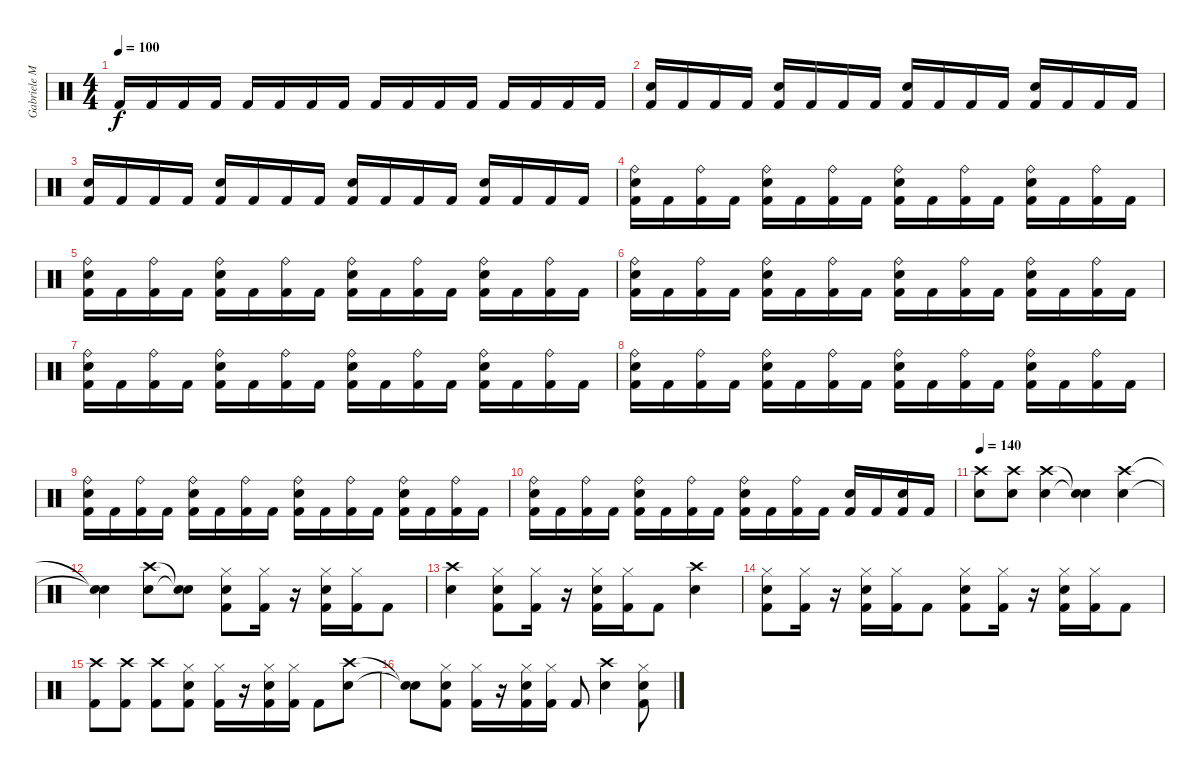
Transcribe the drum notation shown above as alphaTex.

\track ("Gabriele Malatesta" "Gabriele M") {instrument percussion}
\staff {score}
\articulation defaults
\ts (4 4)
\tempo 100
\clef neutral
\ks c "Kick (hit) 2".16{dy f} "Kick (hit) 2".16 "Kick (hit) 2".16 "Kick (hit) 2".16 "Kick (hit) 2".16 "Kick (hit) 2".16 "Kick (hit) 2".16 "Kick (hit) 2".16 "Kick (hit) 2".16 "Kick (hit) 2".16 "Kick (hit) 2".16 "Kick (hit) 2".16 "Kick (hit) 2".16 "Kick (hit) 2".16 "Kick (hit) 2".16 "Kick (hit) 2".16
|
("Electric Snare (hit)" "Kick (hit) 2").16 "Kick (hit) 2".16 "Kick (hit) 2".16 "Kick (hit) 2".16 ("Electric Snare (hit)" "Kick (hit) 2").16 "Kick (hit) 2".16 "Kick (hit) 2".16 "Kick (hit) 2".16 ("Electric Snare (hit)" "Kick (hit) 2").16 "Kick (hit) 2".16 "Kick (hit) 2".16 "Kick (hit) 2".16 ("Electric Snare (hit)" "Kick (hit) 2").16 "Kick (hit) 2".16 "Kick (hit) 2".16 "Kick (hit) 2".16 |
("Electric Snare (hit)" "Kick (hit) 2").16 "Kick (hit) 2".16 "Kick (hit) 2".16 "Kick (hit) 2".16 ("Electric Snare (hit)" "Kick (hit) 2").16 "Kick (hit) 2".16 "Kick (hit) 2".16 "Kick (hit) 2".16 ("Electric Snare (hit)" "Kick (hit) 2").16 "Kick (hit) 2".16 "Kick (hit) 2".16 "Kick (hit) 2".16 ("Electric Snare (hit)" "Kick (hit) 2").16 "Kick (hit) 2".16 "Kick (hit) 2".16 "Kick (hit) 2".16 |
("Ride (bell)" "Electric Snare (hit)" "Kick (hit) 2").16 "Kick (hit) 2".16 ("Ride (bell)" "Kick (hit) 2").16 "Kick (hit) 2".16 ("Ride (bell)" "Electric Snare (hit)" "Kick (hit) 2").16 "Kick (hit) 2".16 ("Ride (bell)" "Kick (hit) 2").16 "Kick (hit) 2".16 ("Ride (bell)" "Electric Snare (hit)" "Kick (hit) 2").16 "Kick (hit) 2".16 ("Ride (bell)" "Kick (hit) 2").16 "Kick (hit) 2".16 ("Ride (bell)" "Electric Snare (hit)" "Kick (hit) 2").16 "Kick (hit) 2".16 ("Ride (bell)" "Kick (hit) 2").16 "Kick (hit) 2".16 |
("Ride (bell)" "Electric Snare (hit)" "Kick (hit) 2").16 "Kick (hit) 2".16 ("Ride (bell)" "Kick (hit) 2").16 "Kick (hit) 2".16 ("Ride (bell)" "Electric Snare (hit)" "Kick (hit) 2").16 "Kick (hit) 2".16 ("Ride (bell)" "Kick (hit) 2").16 "Kick (hit) 2".16 ("Ride (bell)" "Electric Snare (hit)" "Kick (hit) 2").16 "Kick (hit) 2".16 ("Ride (bell)" "Kick (hit) 2").16 "Kick (hit) 2".16 ("Ride (bell)" "Electric Snare (hit)" "Kick (hit) 2").16 "Kick (hit) 2".16 ("Ride (bell)" "Kick (hit) 2").16 "Kick (hit) 2".16 |
("Ride (bell)" "Electric Snare (hit)" "Kick (hit) 2").16 "Kick (hit) 2".16 ("Ride (bell)" "Kick (hit) 2").16 "Kick (hit) 2".16 ("Ride (bell)" "Electric Snare (hit)" "Kick (hit) 2").16 "Kick (hit) 2".16 ("Ride (bell)" "Kick (hit) 2").16 "Kick (hit) 2".16 ("Ride (bell)" "Electric Snare (hit)" "Kick (hit) 2").16 "Kick (hit) 2".16 ("Ride (bell)" "Kick (hit) 2").16 "Kick (hit) 2".16 ("Ride (bell)" "Electric Snare (hit)" "Kick (hit) 2").16 "Kick (hit) 2".16 ("Ride (bell)" "Kick (hit) 2").16 "Kick (hit) 2".16 |
("Ride (bell)" "Electric Snare (hit)" "Kick (hit) 2").16 "Kick (hit) 2".16 ("Ride (bell)" "Kick (hit) 2").16 "Kick (hit) 2".16 ("Ride (bell)" "Electric Snare (hit)" "Kick (hit) 2").16 "Kick (hit) 2".16 ("Ride (bell)" "Kick (hit) 2").16 "Kick (hit) 2".16 ("Ride (bell)" "Electric Snare (hit)" "Kick (hit) 2").16 "Kick (hit) 2".16 ("Ride (bell)" "Kick (hit) 2").16 "Kick (hit) 2".16 ("Ride (bell)" "Electric Snare (hit)" "Kick (hit) 2").16 "Kick (hit) 2".16 ("Ride (bell)" "Kick (hit) 2").16 "Kick (hit) 2".16 |
("Ride (bell)" "Electric Snare (hit)" "Kick (hit) 2").16 "Kick (hit) 2".16 ("Ride (bell)" "Kick (hit) 2").16 "Kick (hit) 2".16 ("Ride (bell)" "Electric Snare (hit)" "Kick (hit) 2").16 "Kick (hit) 2".16 ("Ride (bell)" "Kick (hit) 2").16 "Kick (hit) 2".16 ("Ride (bell)" "Electric Snare (hit)" "Kick (hit) 2").16 "Kick (hit) 2".16 ("Ride (bell)" "Kick (hit) 2").16 "Kick (hit) 2".16 ("Ride (bell)" "Electric Snare (hit)" "Kick (hit) 2").16 "Kick (hit) 2".16 ("Ride (bell)" "Kick (hit) 2").16 "Kick (hit) 2".16 |
("Ride (bell)" "Electric Snare (hit)" "Kick (hit) 2").16 "Kick (hit) 2".16 ("Ride (bell)" "Kick (hit) 2").16 "Kick (hit) 2".16 ("Ride (bell)" "Electric Snare (hit)" "Kick (hit) 2").16 "Kick (hit) 2".16 ("Ride (bell)" "Kick (hit) 2").16 "Kick (hit) 2".16 ("Ride (bell)" "Electric Snare (hit)" "Kick (hit) 2").16 "Kick (hit) 2".16 ("Ride (bell)" "Kick (hit) 2").16 "Kick (hit) 2".16 ("Ride (bell)" "Electric Snare (hit)" "Kick (hit) 2").16 "Kick (hit) 2".16 ("Ride (bell)" "Kick (hit) 2").16 "Kick (hit) 2".16 |
("Ride (bell)" "Electric Snare (hit)" "Kick (hit) 2").16 "Kick (hit) 2".16 ("Ride (bell)" "Kick (hit) 2").16 "Kick (hit) 2".16 ("Ride (bell)" "Electric Snare (hit)" "Kick (hit) 2").16 "Kick (hit) 2".16 ("Ride (bell)" "Kick (hit) 2").16 "Kick (hit) 2".16 ("Ride (bell)" "Electric Snare (hit)" "Kick (hit) 2").16 "Kick (hit) 2".16 ("Ride (bell)" "Kick (hit) 2").16 "Kick (hit) 2".16 ("Electric Snare (hit)" "Kick (hit) 2").16 "Kick (hit) 2".16 ("Electric Snare (hit)" "Kick (hit) 2").16 "Kick (hit) 2".16 |
\tempo 140
("Crash high (hit)" "Electric Snare (hit)").8 ("Crash high (hit)" "Electric Snare (hit)").8 ("Crash high (hit)" "Electric Snare (hit)").4 ("Snare (hit)"{t} "Snare (hit)"{t}).4 ("Crash high (hit)" "Electric Snare (hit)").4 |
("Snare (hit)"{t} "Snare (hit)"{t}).4 ("Crash high (hit)" "Electric Snare (hit)").8 ("Snare (hit)"{t} "Snare (hit)"{t}).8 ("Hi-Hat (closed)" "Electric Snare (hit)" "Kick (hit) 2").8 ("Hi-Hat (closed)" "Kick (hit) 2").16 r.16 ("Hi-Hat (closed)" "Electric Snare (hit)" "Kick (hit) 2").16 ("Hi-Hat (closed)" "Kick (hit) 2").16 "Kick (hit) 2".8 |
("Crash high (hit)" "Electric Snare (hit)").4 ("Hi-Hat (closed)" "Electric Snare (hit)" "Kick (hit) 2").8 ("Hi-Hat (closed)" "Kick (hit) 2").16 r.16 ("Hi-Hat (closed)" "Electric Snare (hit)" "Kick (hit) 2").16 ("Hi-Hat (closed)" "Kick (hit) 2").16 "Kick (hit) 2".8 ("Crash high (hit)" "Electric Snare (hit)").4 |
("Hi-Hat (closed)" "Electric Snare (hit)" "Kick (hit) 2").8 ("Hi-Hat (closed)" "Kick (hit) 2").16 r.16 ("Hi-Hat (closed)" "Electric Snare (hit)" "Kick (hit) 2").16 ("Hi-Hat (closed)" "Kick (hit) 2").16 "Kick (hit) 2".8 ("Hi-Hat (closed)" "Electric Snare (hit)" "Kick (hit) 2").8 ("Hi-Hat (closed)" "Kick (hit) 2").16 r.16 ("Hi-Hat (closed)" "Electric Snare (hit)" "Kick (hit) 2").16 ("Hi-Hat (closed)" "Kick (hit) 2").16 "Kick (hit) 2".8 |
("Crash high (hit)" "Kick (hit) 2").8 ("Crash high (hit)" "Kick (hit) 2").8 ("Crash high (hit)" "Kick (hit) 2").8 ("Hi-Hat (closed)" "Electric Snare (hit)" "Kick (hit) 2").8 ("Hi-Hat (closed)" "Kick (hit) 2").16 r.16 ("Hi-Hat (closed)" "Electric Snare (hit)" "Kick (hit) 2").16 ("Hi-Hat (closed)" "Kick (hit) 2").16 "Kick (hit) 2".8 ("Crash high (hit)" "Electric Snare (hit)").8 |
("Snare (hit)"{t} "Snare (hit)"{t}).8 ("Hi-Hat (closed)" "Electric Snare (hit)" "Kick (hit) 2").8 ("Hi-Hat (closed)" "Kick (hit) 2").16 r.16 ("Hi-Hat (closed)" "Electric Snare (hit)" "Kick (hit) 2").16 ("Hi-Hat (closed)" "Kick (hit) 2").16 "Kick (hit) 2".8 ("Crash high (hit)" "Electric Snare (hit)").4 ("Hi-Hat (closed)" "Electric Snare (hit)" "Kick (hit) 2").8
